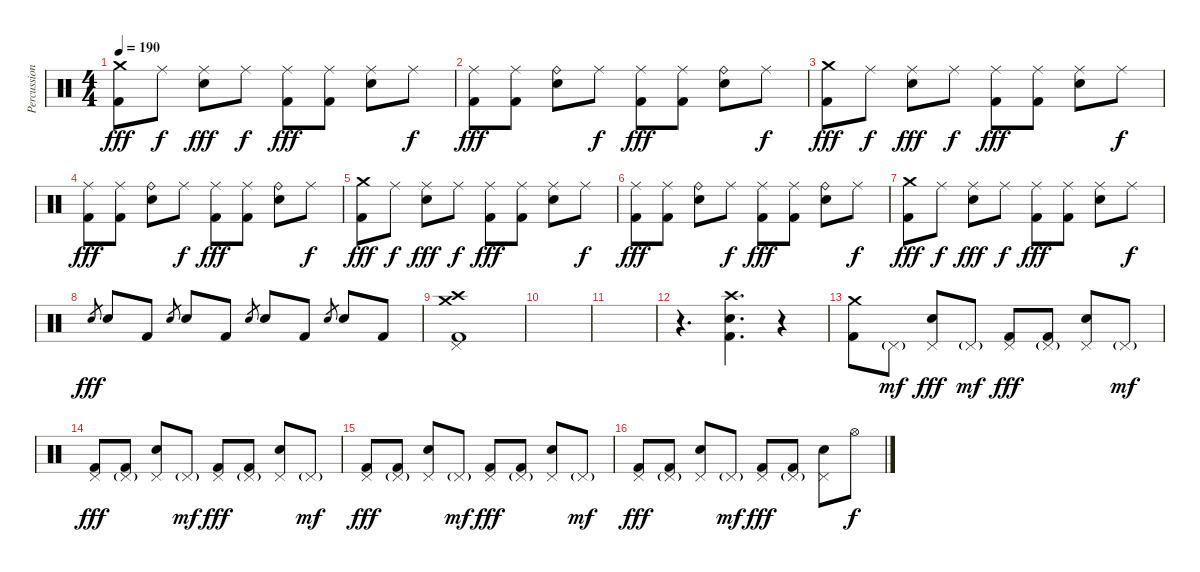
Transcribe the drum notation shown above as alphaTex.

\track ("Percussions" "Percussion") {instrument percussion}
\staff {score}
\articulation defaults
\ts (4 4)
\tempo 190
\clef neutral
\ks c
("Crash medium (hit)" "Kick (hit) 2").8{dy fff} "Ride (middle)".8{dy f} ("Ride (middle)" "Electric Snare (hit)").8{dy fff} "Ride (middle)".8{dy f} ("Ride (middle)" "Kick (hit) 2").8{dy fff} ("Ride (middle)" "Kick (hit) 2").8 ("Ride (middle)" "Electric Snare (hit)").8 "Ride (middle)".8{dy f} |
("Ride (middle)" "Kick (hit) 2").8{dy fff} ("Ride (middle)" "Kick (hit) 2").8 ("Ride (bell)" "Electric Snare (hit)").8 "Ride (middle)".8{dy f} ("Ride (middle)" "Kick (hit) 2").8{dy fff} ("Ride (middle)" "Kick (hit) 2").8 ("Ride (bell)" "Electric Snare (hit)").8 "Ride (middle)".8{dy f} |
("Crash medium (hit)" "Kick (hit) 2").8{dy fff} "Ride (middle)".8{dy f} ("Ride (middle)" "Electric Snare (hit)").8{dy fff} "Ride (middle)".8{dy f} ("Ride (middle)" "Kick (hit) 2").8{dy fff} ("Ride (middle)" "Kick (hit) 2").8 ("Ride (middle)" "Electric Snare (hit)").8 "Ride (middle)".8{dy f} |
("Ride (middle)" "Kick (hit) 2").8{dy fff} ("Ride (middle)" "Kick (hit) 2").8 ("Ride (bell)" "Electric Snare (hit)").8 "Ride (middle)".8{dy f} ("Ride (middle)" "Kick (hit) 2").8{dy fff} ("Ride (middle)" "Kick (hit) 2").8 ("Ride (bell)" "Electric Snare (hit)").8 "Ride (middle)".8{dy f} |
("Crash medium (hit)" "Kick (hit) 2").8{dy fff} "Ride (middle)".8{dy f} ("Ride (middle)" "Electric Snare (hit)").8{dy fff} "Ride (middle)".8{dy f} ("Ride (middle)" "Kick (hit) 2").8{dy fff} ("Ride (middle)" "Kick (hit) 2").8 ("Ride (middle)" "Electric Snare (hit)").8 "Ride (middle)".8{dy f} |
("Ride (middle)" "Kick (hit) 2").8{dy fff} ("Ride (middle)" "Kick (hit) 2").8 ("Ride (bell)" "Electric Snare (hit)").8 "Ride (middle)".8{dy f} ("Ride (middle)" "Kick (hit) 2").8{dy fff} ("Ride (middle)" "Kick (hit) 2").8 ("Ride (bell)" "Electric Snare (hit)").8 "Ride (middle)".8{dy f} |
("Crash medium (hit)" "Kick (hit) 2").8{dy fff} "Ride (middle)".8{dy f} ("Ride (middle)" "Electric Snare (hit)").8{dy fff} "Ride (middle)".8{dy f} ("Ride (middle)" "Kick (hit) 2").8{dy fff} ("Ride (middle)" "Kick (hit) 2").8 ("Ride (middle)" "Electric Snare (hit)").8 "Ride (middle)".8{dy f} |
"Electric Snare (hit)".8{gr dy fff} "Electric Snare (hit)".8 "Kick (hit) 2".8 "Electric Snare (hit)".8{gr} "Electric Snare (hit)".8 "Kick (hit) 2".8 "Electric Snare (hit)".8{gr} "Electric Snare (hit)".8 "Kick (hit) 2".8 "Electric Snare (hit)".8{gr} "Electric Snare (hit)".8 "Kick (hit) 2".8 |
("Crash medium (hit)" "Crash high (hit)" "Pedal Hi-Hat (hit)" "Kick (hit) 2").1 |
|
|
r.4{d} ("Crash high (hit)" "Electric Snare (hit)" "Kick (hit) 2").4{d} r.4 |
("Crash medium (hit)" "Kick (hit) 2").8 "Pedal Hi-Hat (hit)"{g}.8{dy mf} ("Pedal Hi-Hat (hit)" "Electric Snare (hit)").8{dy fff} "Pedal Hi-Hat (hit)"{g}.8{dy mf} ("Pedal Hi-Hat (hit)" "Kick (hit) 2").8{dy fff} ("Pedal Hi-Hat (hit)"{g} "Kick (hit) 2").8 ("Pedal Hi-Hat (hit)" "Electric Snare (hit)").8 "Pedal Hi-Hat (hit)"{g}.8{dy mf} |
("Pedal Hi-Hat (hit)" "Kick (hit) 2").8{dy fff} ("Pedal Hi-Hat (hit)"{g} "Kick (hit) 2").8 ("Pedal Hi-Hat (hit)" "Electric Snare (hit)").8 "Pedal Hi-Hat (hit)"{g}.8{dy mf} ("Pedal Hi-Hat (hit)" "Kick (hit) 2").8{dy fff} ("Pedal Hi-Hat (hit)"{g} "Kick (hit) 2").8 ("Pedal Hi-Hat (hit)" "Electric Snare (hit)").8 "Pedal Hi-Hat (hit)"{g}.8{dy mf} |
("Pedal Hi-Hat (hit)" "Kick (hit) 2").8{dy fff} ("Pedal Hi-Hat (hit)"{g} "Kick (hit) 2").8 ("Pedal Hi-Hat (hit)" "Electric Snare (hit)").8 "Pedal Hi-Hat (hit)"{g}.8{dy mf} ("Pedal Hi-Hat (hit)" "Kick (hit) 2").8{dy fff} ("Pedal Hi-Hat (hit)"{g} "Kick (hit) 2").8 ("Pedal Hi-Hat (hit)" "Electric Snare (hit)").8 "Pedal Hi-Hat (hit)"{g}.8{dy mf} |
("Pedal Hi-Hat (hit)" "Kick (hit) 2").8{dy fff} ("Pedal Hi-Hat (hit)"{g} "Kick (hit) 2").8 ("Pedal Hi-Hat (hit)" "Electric Snare (hit)").8 "Pedal Hi-Hat (hit)"{g}.8{dy mf} ("Pedal Hi-Hat (hit)" "Kick (hit) 2").8{dy fff} ("Pedal Hi-Hat (hit)"{g} "Kick (hit) 2").8 ("Pedal Hi-Hat (hit)" "Electric Snare (hit)").8 "Hi-Hat (open)".8{dy f}
